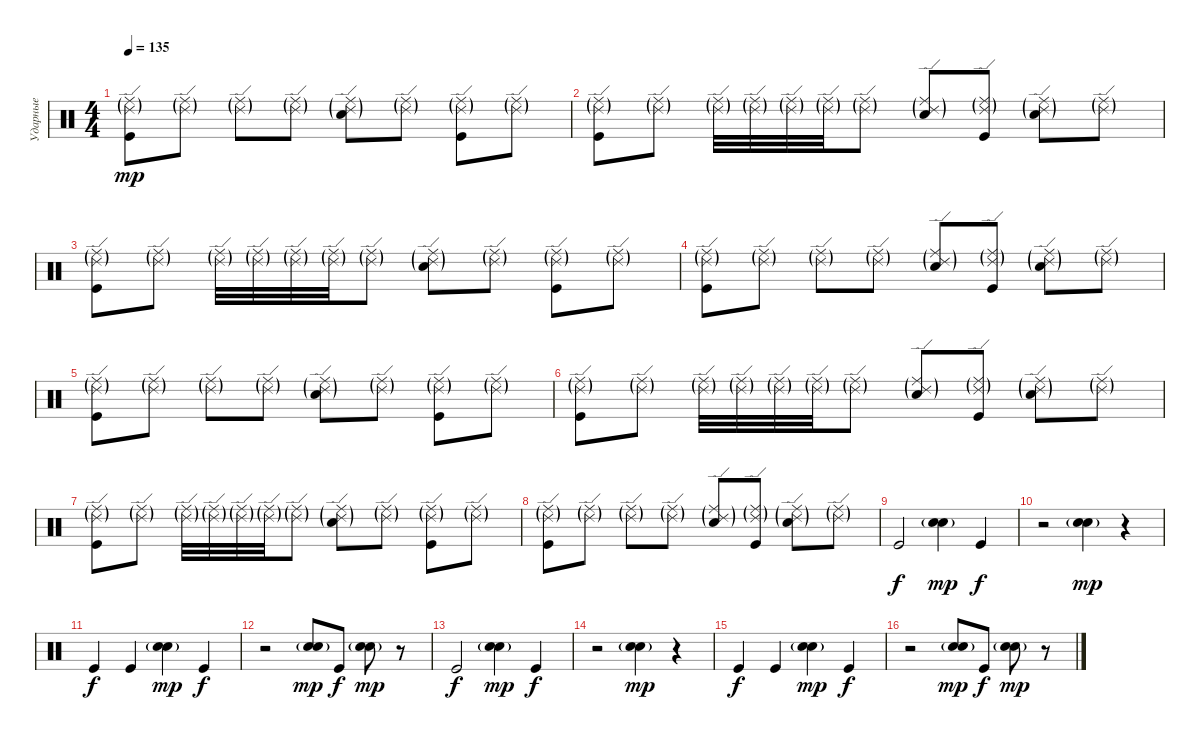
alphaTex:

\track ("Ударные" "Ударные") {instrument percussion}
\staff {score}
\articulation defaults
\ts (4 4)
\tempo 135
\clef neutral
\ks c
("Ride (edge) 2"{g} "Ride (middle)"{g} "Kick (hit)").8{dy mp} ("Ride (edge) 2"{g} "Ride (middle)"{g}).8 ("Ride (edge) 2"{g} "Ride (middle)"{g}).8 ("Ride (edge) 2"{g} "Ride (middle)"{g}).8 ("Ride (edge) 2"{g} "Ride (middle)"{g} "Electric Snare (hit)"{g}).8 ("Ride (edge) 2"{g} "Ride (middle)"{g}).8 ("Ride (edge) 2"{g} "Ride (middle)"{g} "Kick (hit)").8 ("Ride (edge) 2"{g} "Ride (middle)"{g}).8 |
("Ride (edge) 2"{g} "Ride (middle)"{g} "Kick (hit)").8 ("Ride (edge) 2"{g} "Ride (middle)"{g}).8 ("Ride (edge) 2"{g} "Ride (middle)"{g}).32 ("Ride (edge) 2"{g} "Ride (middle)"{g}).32 ("Ride (edge) 2"{g} "Ride (middle)"{g}).32 ("Ride (edge) 2"{g} "Ride (middle)"{g}).32 ("Ride (edge) 2"{g} "Ride (middle)"{g}).8 ("Ride (edge) 2"{g} "Ride (middle)"{g} "Electric Snare (hit)"{g}).8 ("Ride (edge) 2"{g} "Ride (middle)"{g} "Kick (hit)").8 ("Ride (edge) 2"{g} "Ride (middle)"{g} "Electric Snare (hit)"{g}).8 ("Ride (edge) 2"{g} "Ride (middle)"{g}).8 |
("Ride (edge) 2"{g} "Ride (middle)"{g} "Kick (hit)").8 ("Ride (edge) 2"{g} "Ride (middle)"{g}).8 ("Ride (edge) 2"{g} "Ride (middle)"{g}).32 ("Ride (edge) 2"{g} "Ride (middle)"{g}).32 ("Ride (edge) 2"{g} "Ride (middle)"{g}).32 ("Ride (edge) 2"{g} "Ride (middle)"{g}).32 ("Ride (edge) 2"{g} "Ride (middle)"{g}).8 ("Ride (edge) 2"{g} "Ride (middle)"{g} "Electric Snare (hit)"{g}).8 ("Ride (edge) 2"{g} "Ride (middle)"{g}).8 ("Ride (edge) 2"{g} "Ride (middle)"{g} "Kick (hit)").8 ("Ride (edge) 2"{g} "Ride (middle)"{g}).8 |
("Ride (edge) 2"{g} "Ride (middle)"{g} "Kick (hit)").8 ("Ride (edge) 2"{g} "Ride (middle)"{g}).8 ("Ride (edge) 2"{g} "Ride (middle)"{g}).8 ("Ride (edge) 2"{g} "Ride (middle)"{g}).8 ("Ride (edge) 2"{g} "Ride (middle)"{g} "Electric Snare (hit)"{g}).8 ("Ride (edge) 2"{g} "Ride (middle)"{g} "Kick (hit)").8 ("Ride (edge) 2"{g} "Ride (middle)"{g} "Electric Snare (hit)"{g}).8 ("Ride (edge) 2"{g} "Ride (middle)"{g}).8 |
("Ride (edge) 2"{g} "Ride (middle)"{g} "Kick (hit)").8 ("Ride (edge) 2"{g} "Ride (middle)"{g}).8 ("Ride (edge) 2"{g} "Ride (middle)"{g}).8 ("Ride (edge) 2"{g} "Ride (middle)"{g}).8 ("Ride (edge) 2"{g} "Ride (middle)"{g} "Electric Snare (hit)"{g}).8 ("Ride (edge) 2"{g} "Ride (middle)"{g}).8 ("Ride (edge) 2"{g} "Ride (middle)"{g} "Kick (hit)").8 ("Ride (edge) 2"{g} "Ride (middle)"{g}).8 |
("Ride (edge) 2"{g} "Ride (middle)"{g} "Kick (hit)").8 ("Ride (edge) 2"{g} "Ride (middle)"{g}).8 ("Ride (edge) 2"{g} "Ride (middle)"{g}).32 ("Ride (edge) 2"{g} "Ride (middle)"{g}).32 ("Ride (edge) 2"{g} "Ride (middle)"{g}).32 ("Ride (edge) 2"{g} "Ride (middle)"{g}).32 ("Ride (edge) 2"{g} "Ride (middle)"{g}).8 ("Ride (edge) 2"{g} "Ride (middle)"{g} "Electric Snare (hit)"{g}).8 ("Ride (edge) 2"{g} "Ride (middle)"{g} "Kick (hit)").8 ("Ride (edge) 2"{g} "Ride (middle)"{g} "Electric Snare (hit)"{g}).8 ("Ride (edge) 2"{g} "Ride (middle)"{g}).8 |
("Ride (edge) 2"{g} "Ride (middle)"{g} "Kick (hit)").8 ("Ride (edge) 2"{g} "Ride (middle)"{g}).8 ("Ride (edge) 2"{g} "Ride (middle)"{g}).32 ("Ride (edge) 2"{g} "Ride (middle)"{g}).32 ("Ride (edge) 2"{g} "Ride (middle)"{g}).32 ("Ride (edge) 2"{g} "Ride (middle)"{g}).32 ("Ride (edge) 2"{g} "Ride (middle)"{g}).8 ("Ride (edge) 2"{g} "Ride (middle)"{g} "Electric Snare (hit)"{g}).8 ("Ride (edge) 2"{g} "Ride (middle)"{g}).8 ("Ride (edge) 2"{g} "Ride (middle)"{g} "Kick (hit)").8 ("Ride (edge) 2"{g} "Ride (middle)"{g}).8 |
("Ride (edge) 2"{g} "Ride (middle)"{g} "Kick (hit)").8 ("Ride (edge) 2"{g} "Ride (middle)"{g}).8 ("Ride (edge) 2"{g} "Ride (middle)"{g}).8 ("Ride (edge) 2"{g} "Ride (middle)"{g}).8 ("Ride (edge) 2"{g} "Ride (middle)"{g} "Electric Snare (hit)"{g}).8 ("Ride (edge) 2"{g} "Ride (middle)"{g} "Kick (hit)").8 ("Ride (edge) 2"{g} "Ride (middle)"{g} "Electric Snare (hit)"{g}).8 ("Ride (edge) 2"{g} "Ride (middle)"{g}).8 |
"Kick (hit)".2{dy f} ("Snare (hit) 2"{g} "Electric Snare (hit)"{g}).4{dy mp} "Kick (hit)".4{dy f} |
r.2 ("Snare (hit) 2"{g} "Electric Snare (hit)"{g}).4{dy mp} r.4 |
"Kick (hit)".4{dy f} "Kick (hit)".4 ("Snare (hit) 2"{g} "Electric Snare (hit)"{g}).4{dy mp} "Kick (hit)".4{dy f} |
r.2 ("Snare (hit) 2"{g} "Electric Snare (hit)"{g}).8{dy mp} "Kick (hit)".8{dy f} ("Snare (hit) 2"{g} "Electric Snare (hit)"{g}).8{dy mp} r.8 |
"Kick (hit)".2{dy f} ("Snare (hit) 2"{g} "Electric Snare (hit)"{g}).4{dy mp} "Kick (hit)".4{dy f} |
r.2 ("Snare (hit) 2"{g} "Electric Snare (hit)"{g}).4{dy mp} r.4 |
"Kick (hit)".4{dy f} "Kick (hit)".4 ("Snare (hit) 2"{g} "Electric Snare (hit)"{g}).4{dy mp} "Kick (hit)".4{dy f} |
r.2 ("Snare (hit) 2"{g} "Electric Snare (hit)"{g}).8{dy mp} "Kick (hit)".8{dy f} ("Snare (hit) 2"{g} "Electric Snare (hit)"{g}).8{dy mp} r.8
